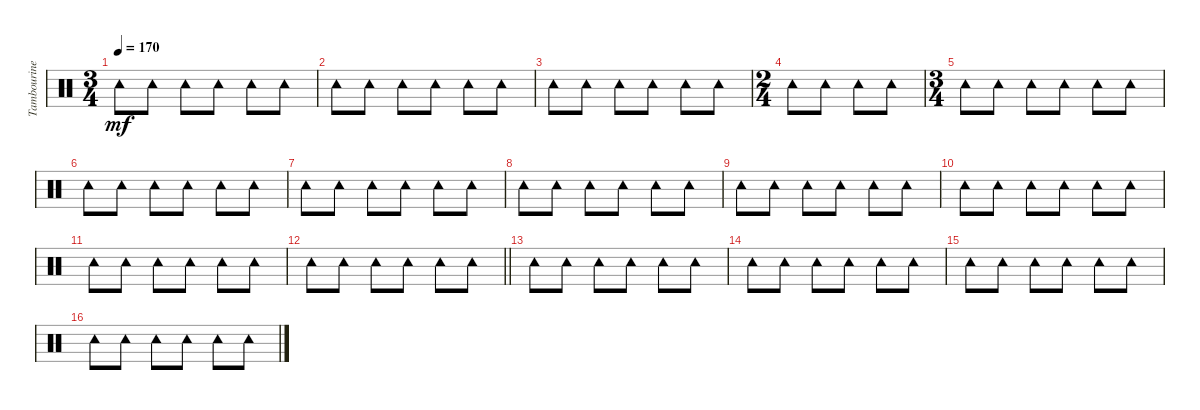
\track ("Tambourine" "Tambourine") {instrument percussion}
\staff {score}
\articulation defaults
\ts (3 4)
\tempo 170
\clef neutral
\ks c "Tambourine (hit)".8{dy mf} "Tambourine (hit)".8 "Tambourine (hit)".8 "Tambourine (hit)".8 "Tambourine (hit)".8 "Tambourine (hit)".8
|
"Tambourine (hit)".8 "Tambourine (hit)".8 "Tambourine (hit)".8 "Tambourine (hit)".8 "Tambourine (hit)".8 "Tambourine (hit)".8 |
"Tambourine (hit)".8 "Tambourine (hit)".8 "Tambourine (hit)".8 "Tambourine (hit)".8 "Tambourine (hit)".8 "Tambourine (hit)".8 |
\ts (2 4)
"Tambourine (hit)".8 "Tambourine (hit)".8 "Tambourine (hit)".8 "Tambourine (hit)".8 |
\ts (3 4)
"Tambourine (hit)".8 "Tambourine (hit)".8 "Tambourine (hit)".8 "Tambourine (hit)".8 "Tambourine (hit)".8 "Tambourine (hit)".8 |
"Tambourine (hit)".8 "Tambourine (hit)".8 "Tambourine (hit)".8 "Tambourine (hit)".8 "Tambourine (hit)".8 "Tambourine (hit)".8 |
"Tambourine (hit)".8 "Tambourine (hit)".8 "Tambourine (hit)".8 "Tambourine (hit)".8 "Tambourine (hit)".8 "Tambourine (hit)".8 |
"Tambourine (hit)".8 "Tambourine (hit)".8 "Tambourine (hit)".8 "Tambourine (hit)".8 "Tambourine (hit)".8 "Tambourine (hit)".8 |
"Tambourine (hit)".8 "Tambourine (hit)".8 "Tambourine (hit)".8 "Tambourine (hit)".8 "Tambourine (hit)".8 "Tambourine (hit)".8 |
"Tambourine (hit)".8 "Tambourine (hit)".8 "Tambourine (hit)".8 "Tambourine (hit)".8 "Tambourine (hit)".8 "Tambourine (hit)".8 |
"Tambourine (hit)".8 "Tambourine (hit)".8 "Tambourine (hit)".8 "Tambourine (hit)".8 "Tambourine (hit)".8 "Tambourine (hit)".8 |
\barLineRight lightlight "Tambourine (hit)".8 "Tambourine (hit)".8 "Tambourine (hit)".8 "Tambourine (hit)".8 "Tambourine (hit)".8 "Tambourine (hit)".8
|
"Tambourine (hit)".8 "Tambourine (hit)".8 "Tambourine (hit)".8 "Tambourine (hit)".8 "Tambourine (hit)".8 "Tambourine (hit)".8 |
"Tambourine (hit)".8 "Tambourine (hit)".8 "Tambourine (hit)".8 "Tambourine (hit)".8 "Tambourine (hit)".8 "Tambourine (hit)".8 |
"Tambourine (hit)".8 "Tambourine (hit)".8 "Tambourine (hit)".8 "Tambourine (hit)".8 "Tambourine (hit)".8 "Tambourine (hit)".8 |
"Tambourine (hit)".8 "Tambourine (hit)".8 "Tambourine (hit)".8 "Tambourine (hit)".8 "Tambourine (hit)".8 "Tambourine (hit)".8
